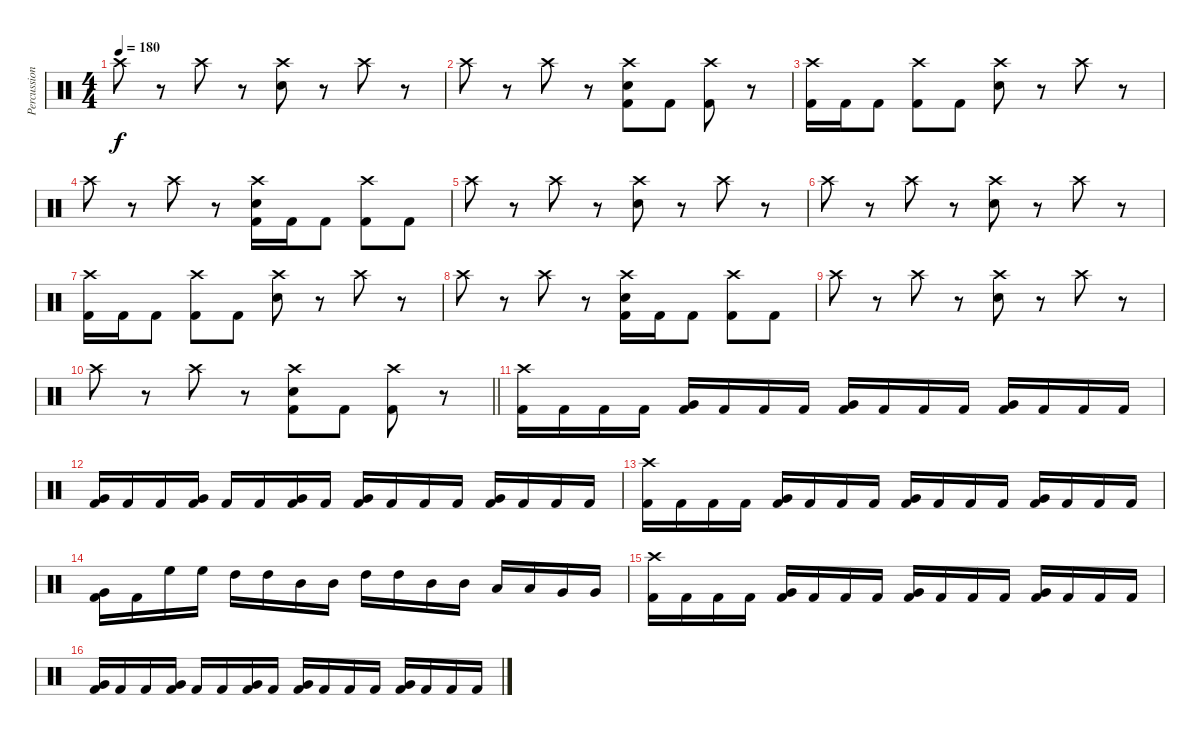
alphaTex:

\track ("Percussion" "Percussion") {instrument percussion}
\staff {score}
\articulation defaults
\ts (4 4)
\tempo 180
\clef neutral
\ks c "Crash high (hit)".8{dy f}
r.8 "Crash high (hit)".8 r.8 ("Crash high (hit)" "Snare (hit) 2").8 r.8 "Crash high (hit)".8 r.8 |
"Crash high (hit)".8 r.8 "Crash high (hit)".8 r.8 ("Crash high (hit)" "Snare (hit) 2" "Kick (hit) 2").8 "Kick (hit) 2".8 ("Crash high (hit)" "Kick (hit) 2").8 r.8 |
("Crash high (hit)" "Kick (hit) 2").16 "Kick (hit) 2".16 "Kick (hit) 2".8 ("Crash high (hit)" "Kick (hit) 2").8 "Kick (hit) 2".8 ("Crash high (hit)" "Snare (hit) 2").8 r.8 "Crash high (hit)".8 r.8 |
"Crash high (hit)".8 r.8 "Crash high (hit)".8 r.8 ("Crash high (hit)" "Snare (hit) 2" "Kick (hit) 2").16 "Kick (hit) 2".16 "Kick (hit) 2".8 ("Crash high (hit)" "Kick (hit) 2").8 "Kick (hit) 2".8 |
"Crash high (hit)".8 r.8 "Crash high (hit)".8 r.8 ("Crash high (hit)" "Snare (hit) 2").8 r.8 "Crash high (hit)".8 r.8 |
"Crash high (hit)".8 r.8 "Crash high (hit)".8 r.8 ("Crash high (hit)" "Snare (hit) 2").8 r.8 "Crash high (hit)".8 r.8 |
("Crash high (hit)" "Kick (hit) 2").16 "Kick (hit) 2".16 "Kick (hit) 2".8 ("Crash high (hit)" "Kick (hit) 2").8 "Kick (hit) 2".8 ("Crash high (hit)" "Snare (hit) 2").8 r.8 "Crash high (hit)".8 r.8 |
"Crash high (hit)".8 r.8 "Crash high (hit)".8 r.8 ("Crash high (hit)" "Snare (hit) 2" "Kick (hit) 2").16 "Kick (hit) 2".16 "Kick (hit) 2".8 ("Crash high (hit)" "Kick (hit) 2").8 "Kick (hit) 2".8 |
"Crash high (hit)".8 r.8 "Crash high (hit)".8 r.8 ("Crash high (hit)" "Snare (hit) 2").8 r.8 "Crash high (hit)".8 r.8 |
\barLineRight lightlight "Crash high (hit)".8
r.8 "Crash high (hit)".8 r.8 ("Crash high (hit)" "Snare (hit) 2" "Kick (hit) 2").8 "Kick (hit) 2".8 ("Crash high (hit)" "Kick (hit) 2").8 r.8 |
("Crash high (hit)" "Kick (hit) 2").16 "Kick (hit) 2".16 "Kick (hit) 2".16 "Kick (hit) 2".16 ("Very Low Tom (hit)" "Kick (hit) 2").16 "Kick (hit) 2".16 "Kick (hit) 2".16 "Kick (hit) 2".16 ("Very Low Tom (hit)" "Kick (hit) 2").16 "Kick (hit) 2".16 "Kick (hit) 2".16 "Kick (hit) 2".16 ("Very Low Tom (hit)" "Kick (hit) 2").16 "Kick (hit) 2".16 "Kick (hit) 2".16 "Kick (hit) 2".16 |
("Very Low Tom (hit)" "Kick (hit) 2").16 "Kick (hit) 2".16 "Kick (hit) 2".16 ("Very Low Tom (hit)" "Kick (hit) 2").16 "Kick (hit) 2".16 "Kick (hit) 2".16 ("Very Low Tom (hit)" "Kick (hit) 2").16 "Kick (hit) 2".16 ("Very Low Tom (hit)" "Kick (hit) 2").16 "Kick (hit) 2".16 "Kick (hit) 2".16 "Kick (hit) 2".16 ("Very Low Tom (hit)" "Kick (hit) 2").16 "Kick (hit) 2".16 "Kick (hit) 2".16 "Kick (hit) 2".16 |
("Crash high (hit)" "Kick (hit) 2").16 "Kick (hit) 2".16 "Kick (hit) 2".16 "Kick (hit) 2".16 ("Very Low Tom (hit)" "Kick (hit) 2").16 "Kick (hit) 2".16 "Kick (hit) 2".16 "Kick (hit) 2".16 ("Very Low Tom (hit)" "Kick (hit) 2").16 "Kick (hit) 2".16 "Kick (hit) 2".16 "Kick (hit) 2".16 ("Very Low Tom (hit)" "Kick (hit) 2").16 "Kick (hit) 2".16 "Kick (hit) 2".16 "Kick (hit) 2".16 |
("Very Low Tom (hit)" "Kick (hit) 2").16 "Kick (hit) 2".16 "High Floor Tom (hit)".16 "High Floor Tom (hit)".16 "High Tom (hit)".16 "High Tom (hit)".16 "Mid Tom (hit)".16 "Mid Tom (hit)".16 "High Tom (hit)".16 "High Tom (hit)".16 "Mid Tom (hit)".16 "Mid Tom (hit)".16 "Low Tom (hit)".16 "Low Tom (hit)".16 "Very Low Tom (hit)".16 "Very Low Tom (hit)".16 |
("Crash high (hit)" "Kick (hit) 2").16 "Kick (hit) 2".16 "Kick (hit) 2".16 "Kick (hit) 2".16 ("Very Low Tom (hit)" "Kick (hit) 2").16 "Kick (hit) 2".16 "Kick (hit) 2".16 "Kick (hit) 2".16 ("Very Low Tom (hit)" "Kick (hit) 2").16 "Kick (hit) 2".16 "Kick (hit) 2".16 "Kick (hit) 2".16 ("Very Low Tom (hit)" "Kick (hit) 2").16 "Kick (hit) 2".16 "Kick (hit) 2".16 "Kick (hit) 2".16 |
("Very Low Tom (hit)" "Kick (hit) 2").16 "Kick (hit) 2".16 "Kick (hit) 2".16 ("Very Low Tom (hit)" "Kick (hit) 2").16 "Kick (hit) 2".16 "Kick (hit) 2".16 ("Very Low Tom (hit)" "Kick (hit) 2").16 "Kick (hit) 2".16 ("Very Low Tom (hit)" "Kick (hit) 2").16 "Kick (hit) 2".16 "Kick (hit) 2".16 "Kick (hit) 2".16 ("Very Low Tom (hit)" "Kick (hit) 2").16 "Kick (hit) 2".16 "Kick (hit) 2".16 "Kick (hit) 2".16
